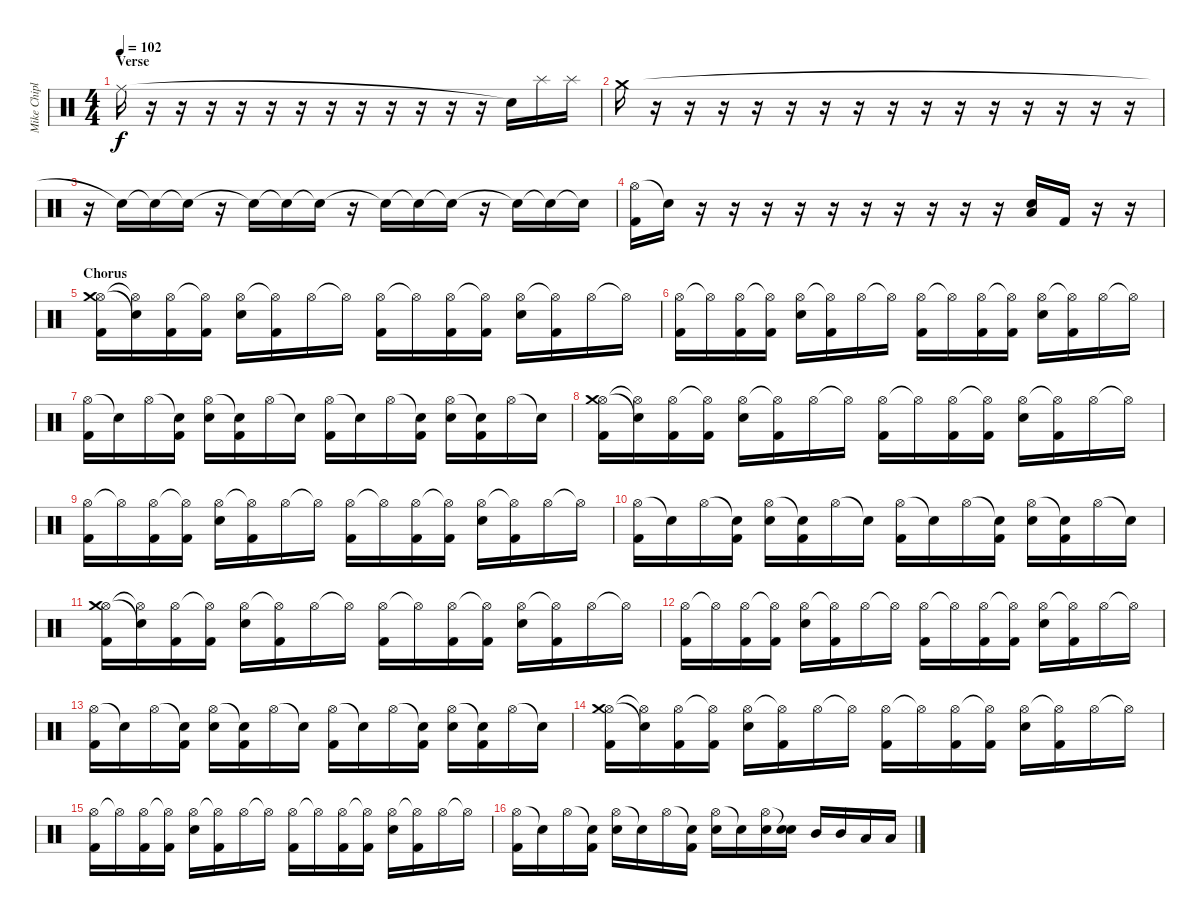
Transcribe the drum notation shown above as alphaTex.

\track ("Mike Chiplin" "Mike Chipl") {instrument percussion}
\staff {score}
\articulation defaults
\ts (4 4)
\section ("" "Verse")
\tempo 102
\clef neutral
\ks c "Ride (middle)".16{dy f}
r.16 r.16 r.16 r.16 r.16 r.16 r.16 r.16 r.16 r.16 r.16 r.16 "Snare (hit)"{t}.16 "Splash (hit)".16 "Splash (hit)".16 |
"Crash medium (hit)".16 r.16 r.16 r.16 r.16 r.16 r.16 r.16 r.16 r.16 r.16 r.16 r.16 r.16 r.16 r.16 |
r.16 "Snare (hit)"{t}.16 "Snare (hit)"{t}.16 "Snare (hit)"{t}.16 r.16 "Snare (hit)"{t}.16 "Snare (hit)"{t}.16 "Snare (hit)"{t}.16 r.16 "Snare (hit)"{t}.16 "Snare (hit)"{t}.16 "Snare (hit)"{t}.16 r.16 "Snare (hit)"{t}.16 "Snare (hit)"{t}.16 "Snare (hit)"{t}.16 |
("Hi-Hat (open)" "Kick (hit) 2").16 "Snare (hit)"{t}.16 r.16 r.16 r.16 r.16 r.16 r.16 r.16 r.16 r.16 r.16 ("Electric Snare (hit)" "Low Floor Tom (hit)").16 "Kick (hit) 2".16 r.16 r.16 |
\section ("" "Chorus")
("Hi-Hat (open)" "Crash medium (hit)" "Kick (hit) 2").16 ("Hi-Hat (open)"{t} "Snare (hit)"{t}).16 ("Hi-Hat (open)" "Kick (hit) 2").16 ("Hi-Hat (open)"{t} "Kick (hit) 2").16 ("Hi-Hat (open)" "Electric Snare (hit)").16 ("Hi-Hat (open)"{t} "Kick (hit) 2").16 "Hi-Hat (open)".16 "Hi-Hat (open)"{t}.16 ("Hi-Hat (open)" "Kick (hit) 2").16 "Hi-Hat (open)"{t}.16 ("Hi-Hat (open)" "Kick (hit) 2").16 ("Hi-Hat (open)"{t} "Kick (hit) 2").16 ("Hi-Hat (open)" "Electric Snare (hit)").16 ("Hi-Hat (open)"{t} "Kick (hit) 2").16 "Hi-Hat (open)".16 "Hi-Hat (open)"{t}.16 |
("Hi-Hat (open)" "Kick (hit) 2").16 "Hi-Hat (open)"{t}.16 ("Hi-Hat (open)" "Kick (hit) 2").16 ("Hi-Hat (open)"{t} "Kick (hit) 2").16 ("Hi-Hat (open)" "Electric Snare (hit)").16 ("Hi-Hat (open)"{t} "Kick (hit) 2").16 "Hi-Hat (open)".16 "Hi-Hat (open)"{t}.16 ("Hi-Hat (open)" "Kick (hit) 2").16 "Hi-Hat (open)"{t}.16 ("Hi-Hat (open)" "Kick (hit) 2").16 ("Hi-Hat (open)"{t} "Kick (hit) 2").16 ("Hi-Hat (open)" "Electric Snare (hit)").16 ("Hi-Hat (open)"{t} "Kick (hit) 2").16 "Hi-Hat (open)".16 "Hi-Hat (open)"{t}.16 |
("Hi-Hat (open)" "Kick (hit) 2").16 "Snare (hit)"{t}.16 "Hi-Hat (open)".16 ("Snare (hit)"{t} "Kick (hit) 2").16 ("Hi-Hat (open)" "Electric Snare (hit)").16 ("Snare (hit)"{t} "Kick (hit) 2").16 "Hi-Hat (open)".16 "Snare (hit)"{t}.16 ("Hi-Hat (open)" "Kick (hit) 2").16 "Snare (hit)"{t}.16 "Hi-Hat (open)".16 ("Snare (hit)"{t} "Kick (hit) 2").16 ("Hi-Hat (open)" "Electric Snare (hit)").16 ("Snare (hit)"{t} "Kick (hit) 2").16 "Hi-Hat (open)".16 "Snare (hit)"{t}.16 |
("Hi-Hat (open)" "Crash medium (hit)" "Kick (hit) 2").16 ("Hi-Hat (open)"{t} "Snare (hit)"{t}).16 ("Hi-Hat (open)" "Kick (hit) 2").16 ("Hi-Hat (open)"{t} "Kick (hit) 2").16 ("Hi-Hat (open)" "Electric Snare (hit)").16 ("Hi-Hat (open)"{t} "Kick (hit) 2").16 "Hi-Hat (open)".16 "Hi-Hat (open)"{t}.16 ("Hi-Hat (open)" "Kick (hit) 2").16 "Hi-Hat (open)"{t}.16 ("Hi-Hat (open)" "Kick (hit) 2").16 ("Hi-Hat (open)"{t} "Kick (hit) 2").16 ("Hi-Hat (open)" "Electric Snare (hit)").16 ("Hi-Hat (open)"{t} "Kick (hit) 2").16 "Hi-Hat (open)".16 "Hi-Hat (open)"{t}.16 |
("Hi-Hat (open)" "Kick (hit) 2").16 "Hi-Hat (open)"{t}.16 ("Hi-Hat (open)" "Kick (hit) 2").16 ("Hi-Hat (open)"{t} "Kick (hit) 2").16 ("Hi-Hat (open)" "Electric Snare (hit)").16 ("Hi-Hat (open)"{t} "Kick (hit) 2").16 "Hi-Hat (open)".16 "Hi-Hat (open)"{t}.16 ("Hi-Hat (open)" "Kick (hit) 2").16 "Hi-Hat (open)"{t}.16 ("Hi-Hat (open)" "Kick (hit) 2").16 ("Hi-Hat (open)"{t} "Kick (hit) 2").16 ("Hi-Hat (open)" "Electric Snare (hit)").16 ("Hi-Hat (open)"{t} "Kick (hit) 2").16 "Hi-Hat (open)".16 "Hi-Hat (open)"{t}.16 |
("Hi-Hat (open)" "Kick (hit) 2").16 "Snare (hit)"{t}.16 "Hi-Hat (open)".16 ("Snare (hit)"{t} "Kick (hit) 2").16 ("Hi-Hat (open)" "Electric Snare (hit)").16 ("Snare (hit)"{t} "Kick (hit) 2").16 "Hi-Hat (open)".16 "Snare (hit)"{t}.16 ("Hi-Hat (open)" "Kick (hit) 2").16 "Snare (hit)"{t}.16 "Hi-Hat (open)".16 ("Snare (hit)"{t} "Kick (hit) 2").16 ("Hi-Hat (open)" "Electric Snare (hit)").16 ("Snare (hit)"{t} "Kick (hit) 2").16 "Hi-Hat (open)".16 "Snare (hit)"{t}.16 |
("Hi-Hat (open)" "Crash medium (hit)" "Kick (hit) 2").16 ("Hi-Hat (open)"{t} "Snare (hit)"{t}).16 ("Hi-Hat (open)" "Kick (hit) 2").16 ("Hi-Hat (open)"{t} "Kick (hit) 2").16 ("Hi-Hat (open)" "Electric Snare (hit)").16 ("Hi-Hat (open)"{t} "Kick (hit) 2").16 "Hi-Hat (open)".16 "Hi-Hat (open)"{t}.16 ("Hi-Hat (open)" "Kick (hit) 2").16 "Hi-Hat (open)"{t}.16 ("Hi-Hat (open)" "Kick (hit) 2").16 ("Hi-Hat (open)"{t} "Kick (hit) 2").16 ("Hi-Hat (open)" "Electric Snare (hit)").16 ("Hi-Hat (open)"{t} "Kick (hit) 2").16 "Hi-Hat (open)".16 "Hi-Hat (open)"{t}.16 |
("Hi-Hat (open)" "Kick (hit) 2").16 "Hi-Hat (open)"{t}.16 ("Hi-Hat (open)" "Kick (hit) 2").16 ("Hi-Hat (open)"{t} "Kick (hit) 2").16 ("Hi-Hat (open)" "Electric Snare (hit)").16 ("Hi-Hat (open)"{t} "Kick (hit) 2").16 "Hi-Hat (open)".16 "Hi-Hat (open)"{t}.16 ("Hi-Hat (open)" "Kick (hit) 2").16 "Hi-Hat (open)"{t}.16 ("Hi-Hat (open)" "Kick (hit) 2").16 ("Hi-Hat (open)"{t} "Kick (hit) 2").16 ("Hi-Hat (open)" "Electric Snare (hit)").16 ("Hi-Hat (open)"{t} "Kick (hit) 2").16 "Hi-Hat (open)".16 "Hi-Hat (open)"{t}.16 |
("Hi-Hat (open)" "Kick (hit) 2").16 "Snare (hit)"{t}.16 "Hi-Hat (open)".16 ("Snare (hit)"{t} "Kick (hit) 2").16 ("Hi-Hat (open)" "Electric Snare (hit)").16 ("Snare (hit)"{t} "Kick (hit) 2").16 "Hi-Hat (open)".16 "Snare (hit)"{t}.16 ("Hi-Hat (open)" "Kick (hit) 2").16 "Snare (hit)"{t}.16 "Hi-Hat (open)".16 ("Snare (hit)"{t} "Kick (hit) 2").16 ("Hi-Hat (open)" "Electric Snare (hit)").16 ("Snare (hit)"{t} "Kick (hit) 2").16 "Hi-Hat (open)".16 "Snare (hit)"{t}.16 |
("Hi-Hat (open)" "Crash medium (hit)" "Kick (hit) 2").16 ("Hi-Hat (open)"{t} "Snare (hit)"{t}).16 ("Hi-Hat (open)" "Kick (hit) 2").16 ("Hi-Hat (open)"{t} "Kick (hit) 2").16 ("Hi-Hat (open)" "Electric Snare (hit)").16 ("Hi-Hat (open)"{t} "Kick (hit) 2").16 "Hi-Hat (open)".16 "Hi-Hat (open)"{t}.16 ("Hi-Hat (open)" "Kick (hit) 2").16 "Hi-Hat (open)"{t}.16 ("Hi-Hat (open)" "Kick (hit) 2").16 ("Hi-Hat (open)"{t} "Kick (hit) 2").16 ("Hi-Hat (open)" "Electric Snare (hit)").16 ("Hi-Hat (open)"{t} "Kick (hit) 2").16 "Hi-Hat (open)".16 "Hi-Hat (open)"{t}.16 |
("Hi-Hat (open)" "Kick (hit) 2").16 "Hi-Hat (open)"{t}.16 ("Hi-Hat (open)" "Kick (hit) 2").16 ("Hi-Hat (open)"{t} "Kick (hit) 2").16 ("Hi-Hat (open)" "Electric Snare (hit)").16 ("Hi-Hat (open)"{t} "Kick (hit) 2").16 "Hi-Hat (open)".16 "Hi-Hat (open)"{t}.16 ("Hi-Hat (open)" "Kick (hit) 2").16 "Hi-Hat (open)"{t}.16 ("Hi-Hat (open)" "Kick (hit) 2").16 ("Hi-Hat (open)"{t} "Kick (hit) 2").16 ("Hi-Hat (open)" "Electric Snare (hit)").16 ("Hi-Hat (open)"{t} "Kick (hit) 2").16 "Hi-Hat (open)".16 "Hi-Hat (open)"{t}.16 |
("Hi-Hat (open)" "Kick (hit) 2").16 "Snare (hit)"{t}.16 "Hi-Hat (open)".16 ("Snare (hit)"{t} "Kick (hit) 2").16 ("Hi-Hat (open)" "Electric Snare (hit)").16 "Snare (hit)"{t}.16 "Hi-Hat (open)".16 ("Snare (hit)"{t} "Kick (hit) 2").16 ("Hi-Hat (open)" "Electric Snare (hit)").16 "Snare (hit)"{t}.16 ("Hi-Hat (open)" "Electric Snare (hit)").16 ("Snare (hit)"{t} "Electric Snare (hit)").16 "Mid Tom (hit)".16 "Mid Tom (hit)".16 "Low Floor Tom (hit)".16 "Low Floor Tom (hit)".16
